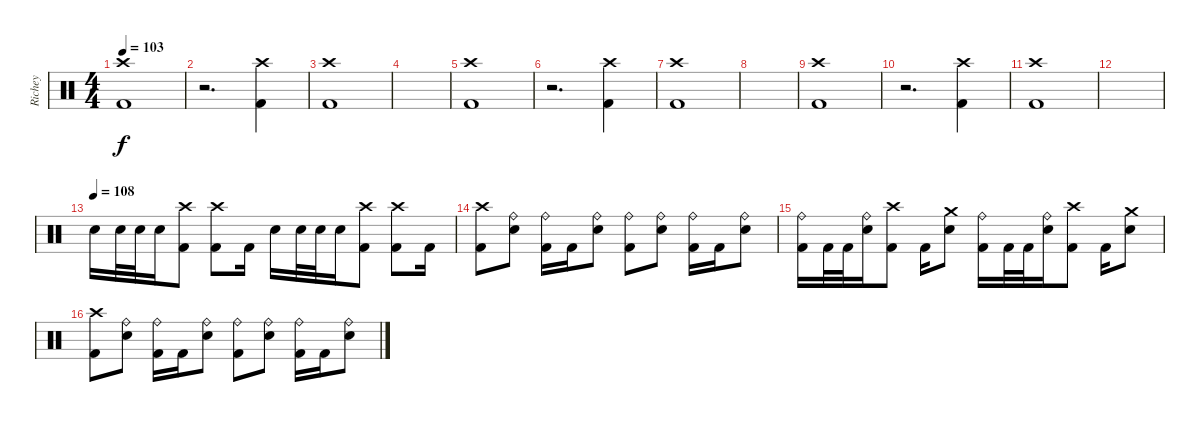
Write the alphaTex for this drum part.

\track ("Richey" "Richey") {instrument percussion}
\staff {score}
\articulation defaults
\ts (4 4)
\tempo 103
\clef neutral
\ks c
("Crash high (hit)" "Kick (hit) 2").1{dy f} |
r.2{d} ("Crash high (hit)" "Kick (hit) 2").4 |
("Crash high (hit)" "Kick (hit) 2").1 |
|
("Crash high (hit)" "Kick (hit) 2").1 |
r.2{d} ("Crash high (hit)" "Kick (hit) 2").4 |
("Crash high (hit)" "Kick (hit) 2").1 |
|
("Crash high (hit)" "Kick (hit) 2").1 |
r.2{d} ("Crash high (hit)" "Kick (hit) 2").4 |
("Crash high (hit)" "Kick (hit) 2").1 |
|
\tempo (108)
"Snare (hit) 2".16 "Snare (hit) 2".32 "Snare (hit) 2".32 "Snare (hit) 2".16 ("Crash high (hit)" "Kick (hit) 2").8 ("Crash high (hit)" "Kick (hit) 2").8 "Kick (hit) 2".16 "Snare (hit) 2".16 "Snare (hit) 2".32 "Snare (hit) 2".32 "Snare (hit) 2".16 ("Crash high (hit)" "Kick (hit) 2").8 ("Crash high (hit)" "Kick (hit) 2").8 "Kick (hit) 2".16 |
("Crash high (hit)" "Kick (hit) 2").8 ("Ride (bell)" "Snare (hit) 2").8 ("Ride (bell)" "Kick (hit) 2").16 "Kick (hit) 2".16 ("Ride (bell)" "Snare (hit) 2").8 ("Ride (bell)" "Kick (hit) 2").8 ("Ride (bell)" "Snare (hit) 2").8 ("Ride (bell)" "Kick (hit) 2").16 "Kick (hit) 2".16 ("Ride (bell)" "Snare (hit) 2").8 |
("Ride (bell)" "Kick (hit) 2").16 "Kick (hit) 2".32 "Kick (hit) 2".32 ("Ride (bell)" "Snare (hit) 2").16 ("Crash high (hit)" "Kick (hit) 2").8 "Kick (hit) 2".16 ("Crash medium (hit)" "Snare (hit) 2").8 ("Ride (bell)" "Kick (hit) 2").16 "Kick (hit) 2".32 "Kick (hit) 2".32 ("Ride (bell)" "Snare (hit) 2").16 ("Crash high (hit)" "Kick (hit) 2").8 "Kick (hit) 2".16 ("Crash medium (hit)" "Snare (hit) 2").8 |
("Crash high (hit)" "Kick (hit) 2").8 ("Ride (bell)" "Snare (hit) 2").8 ("Ride (bell)" "Kick (hit) 2").16 "Kick (hit) 2".16 ("Ride (bell)" "Snare (hit) 2").8 ("Ride (bell)" "Kick (hit) 2").8 ("Ride (bell)" "Snare (hit) 2").8 ("Ride (bell)" "Kick (hit) 2").16 "Kick (hit) 2".16 ("Ride (bell)" "Snare (hit) 2").8
